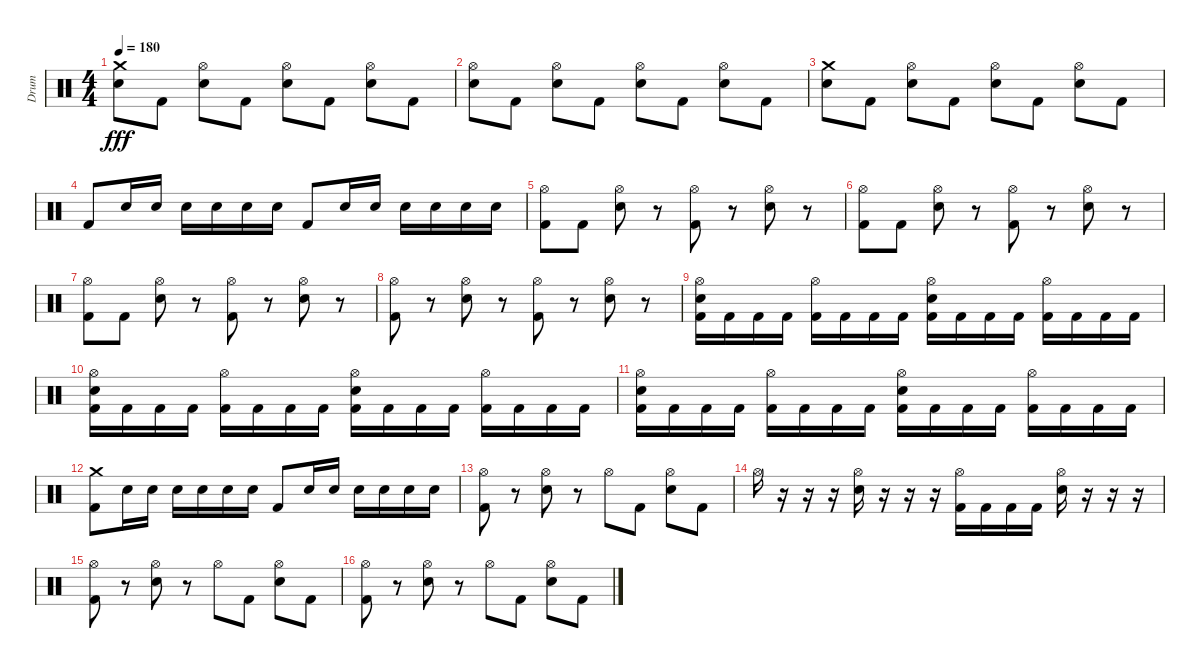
\track ("Drum" "Drum") {instrument percussion}
\staff {score}
\articulation defaults
\ts (4 4)
\tempo 180
\clef neutral
\ks c
("Crash medium (hit)" "Electric Snare (hit)").8{dy fff} "Kick (hit) 2".8 ("Hi-Hat (open)" "Electric Snare (hit)").8 "Kick (hit) 2".8 ("Hi-Hat (open)" "Electric Snare (hit)").8 "Kick (hit) 2".8 ("Hi-Hat (open)" "Electric Snare (hit)").8 "Kick (hit) 2".8 |
("Hi-Hat (open)" "Electric Snare (hit)").8 "Kick (hit) 2".8 ("Hi-Hat (open)" "Electric Snare (hit)").8 "Kick (hit) 2".8 ("Hi-Hat (open)" "Electric Snare (hit)").8 "Kick (hit) 2".8 ("Hi-Hat (open)" "Electric Snare (hit)").8 "Kick (hit) 2".8 |
("Crash medium (hit)" "Electric Snare (hit)").8 "Kick (hit) 2".8 ("Hi-Hat (open)" "Electric Snare (hit)").8 "Kick (hit) 2".8 ("Hi-Hat (open)" "Electric Snare (hit)").8 "Kick (hit) 2".8 ("Hi-Hat (open)" "Electric Snare (hit)").8 "Kick (hit) 2".8 |
"Kick (hit) 2".8 "Electric Snare (hit)".16 "Electric Snare (hit)".16 "Electric Snare (hit)".16 "Electric Snare (hit)".16 "Electric Snare (hit)".16 "Electric Snare (hit)".16 "Kick (hit) 2".8 "Electric Snare (hit)".16 "Electric Snare (hit)".16 "Electric Snare (hit)".16 "Electric Snare (hit)".16 "Electric Snare (hit)".16 "Electric Snare (hit)".16 |
("Hi-Hat (open)" "Kick (hit) 2").8 "Kick (hit) 2".8 ("Hi-Hat (open)" "Electric Snare (hit)").8 r.8 ("Hi-Hat (open)" "Kick (hit) 2").8 r.8 ("Hi-Hat (open)" "Electric Snare (hit)").8 r.8 |
("Hi-Hat (open)" "Kick (hit) 2").8 "Kick (hit) 2".8 ("Hi-Hat (open)" "Electric Snare (hit)").8 r.8 ("Hi-Hat (open)" "Kick (hit) 2").8 r.8 ("Hi-Hat (open)" "Electric Snare (hit)").8 r.8 |
("Hi-Hat (open)" "Kick (hit) 2").8 "Kick (hit) 2".8 ("Hi-Hat (open)" "Electric Snare (hit)").8 r.8 ("Hi-Hat (open)" "Kick (hit) 2").8 r.8 ("Hi-Hat (open)" "Electric Snare (hit)").8 r.8 |
("Hi-Hat (open)" "Kick (hit) 2").8 r.8 ("Hi-Hat (open)" "Electric Snare (hit)").8 r.8 ("Hi-Hat (open)" "Kick (hit) 2").8 r.8 ("Hi-Hat (open)" "Electric Snare (hit)").8 r.8 |
("Hi-Hat (open)" "Electric Snare (hit)" "Kick (hit) 2").16 "Kick (hit) 2".16 "Kick (hit) 2".16 "Kick (hit) 2".16 ("Hi-Hat (open)" "Kick (hit) 2").16 "Kick (hit) 2".16 "Kick (hit) 2".16 "Kick (hit) 2".16 ("Hi-Hat (open)" "Electric Snare (hit)" "Kick (hit) 2").16 "Kick (hit) 2".16 "Kick (hit) 2".16 "Kick (hit) 2".16 ("Hi-Hat (open)" "Kick (hit) 2").16 "Kick (hit) 2".16 "Kick (hit) 2".16 "Kick (hit) 2".16 |
("Hi-Hat (open)" "Electric Snare (hit)" "Kick (hit) 2").16 "Kick (hit) 2".16 "Kick (hit) 2".16 "Kick (hit) 2".16 ("Hi-Hat (open)" "Kick (hit) 2").16 "Kick (hit) 2".16 "Kick (hit) 2".16 "Kick (hit) 2".16 ("Hi-Hat (open)" "Electric Snare (hit)" "Kick (hit) 2").16 "Kick (hit) 2".16 "Kick (hit) 2".16 "Kick (hit) 2".16 ("Hi-Hat (open)" "Kick (hit) 2").16 "Kick (hit) 2".16 "Kick (hit) 2".16 "Kick (hit) 2".16 |
("Hi-Hat (open)" "Electric Snare (hit)" "Kick (hit) 2").16 "Kick (hit) 2".16 "Kick (hit) 2".16 "Kick (hit) 2".16 ("Hi-Hat (open)" "Kick (hit) 2").16 "Kick (hit) 2".16 "Kick (hit) 2".16 "Kick (hit) 2".16 ("Hi-Hat (open)" "Electric Snare (hit)" "Kick (hit) 2").16 "Kick (hit) 2".16 "Kick (hit) 2".16 "Kick (hit) 2".16 ("Hi-Hat (open)" "Kick (hit) 2").16 "Kick (hit) 2".16 "Kick (hit) 2".16 "Kick (hit) 2".16 |
("Crash medium (hit)" "Kick (hit) 2").8 "Electric Snare (hit)".16 "Electric Snare (hit)".16 "Electric Snare (hit)".16 "Electric Snare (hit)".16 "Electric Snare (hit)".16 "Electric Snare (hit)".16 "Kick (hit) 2".8 "Electric Snare (hit)".16 "Electric Snare (hit)".16 "Electric Snare (hit)".16 "Electric Snare (hit)".16 "Electric Snare (hit)".16 "Electric Snare (hit)".16 |
("Hi-Hat (open)" "Kick (hit) 2").8 r.8 ("Hi-Hat (open)" "Electric Snare (hit)").8 r.8 "Hi-Hat (open)".8 "Kick (hit) 2".8 ("Hi-Hat (open)" "Electric Snare (hit)").8 "Kick (hit) 2".8 |
"Hi-Hat (open)".16 r.16 r.16 r.16 ("Hi-Hat (open)" "Electric Snare (hit)").16 r.16 r.16 r.16 ("Hi-Hat (open)" "Kick (hit) 2").16 "Kick (hit) 2".16 "Kick (hit) 2".16 "Kick (hit) 2".16 ("Hi-Hat (open)" "Electric Snare (hit)").16 r.16 r.16 r.16 |
("Hi-Hat (open)" "Kick (hit) 2").8 r.8 ("Hi-Hat (open)" "Electric Snare (hit)").8 r.8 "Hi-Hat (open)".8 "Kick (hit) 2".8 ("Hi-Hat (open)" "Electric Snare (hit)").8 "Kick (hit) 2".8 |
("Hi-Hat (open)" "Kick (hit) 2").8 r.8 ("Hi-Hat (open)" "Electric Snare (hit)").8 r.8 "Hi-Hat (open)".8 "Kick (hit) 2".8 ("Hi-Hat (open)" "Electric Snare (hit)").8 "Kick (hit) 2".8
